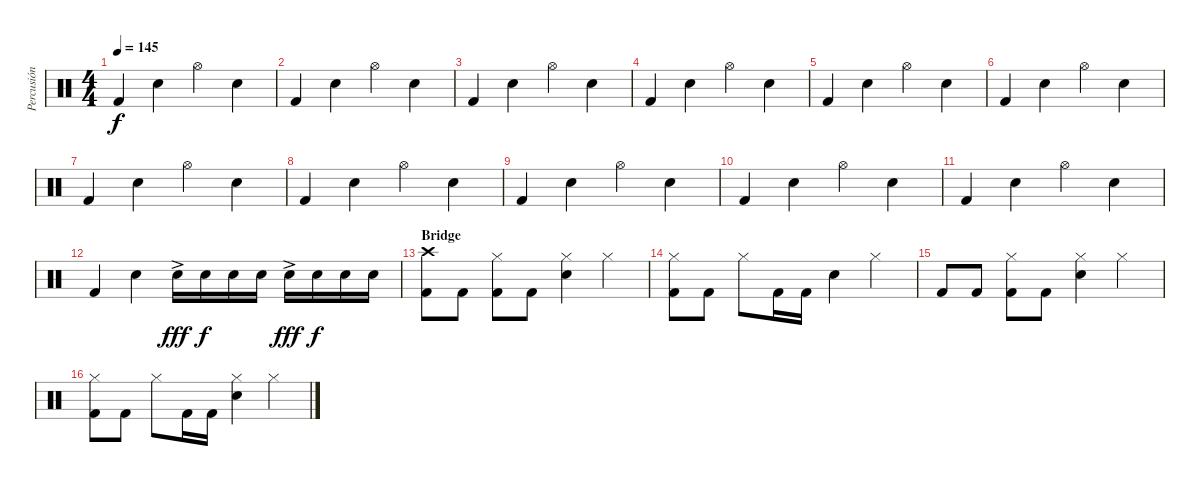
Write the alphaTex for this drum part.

\track ("Percusión" "Percusión") {instrument percussion}
\staff {score}
\articulation defaults
\ts (4 4)
\tempo 145
\clef neutral
\ks c "Kick (hit) 2".4{dy f} "Snare (hit) 2".4 "Hi-Hat (open)".4 "Snare (hit) 2".4
|
"Kick (hit) 2".4 "Snare (hit) 2".4 "Hi-Hat (open)".4 "Snare (hit) 2".4 |
"Kick (hit) 2".4 "Snare (hit) 2".4 "Hi-Hat (open)".4 "Snare (hit) 2".4 |
"Kick (hit) 2".4 "Snare (hit) 2".4 "Hi-Hat (open)".4 "Snare (hit) 2".4 |
"Kick (hit) 2".4 "Snare (hit) 2".4 "Hi-Hat (open)".4 "Snare (hit) 2".4 |
"Kick (hit) 2".4 "Snare (hit) 2".4 "Hi-Hat (open)".4 "Snare (hit) 2".4 |
"Kick (hit) 2".4 "Snare (hit) 2".4 "Hi-Hat (open)".4 "Snare (hit) 2".4 |
"Kick (hit) 2".4 "Snare (hit) 2".4 "Hi-Hat (open)".4 "Snare (hit) 2".4 |
"Kick (hit) 2".4 "Snare (hit) 2".4 "Hi-Hat (open)".4 "Snare (hit) 2".4 |
"Kick (hit) 2".4 "Snare (hit) 2".4 "Hi-Hat (open)".4 "Snare (hit) 2".4 |
"Kick (hit) 2".4 "Snare (hit) 2".4 "Hi-Hat (open)".4 "Snare (hit) 2".4 |
"Kick (hit) 2".4 "Snare (hit) 2".4 "Snare (hit) 2"{ac}.16{dy fff} "Snare (hit) 2".16{dy f} "Snare (hit) 2".16 "Snare (hit) 2".16 "Snare (hit) 2"{ac}.16{dy fff} "Snare (hit) 2".16{dy f} "Snare (hit) 2".16 "Snare (hit) 2".16 |
\section ("" "Bridge")
("Crash high (hit)" "Kick (hit) 2").8 "Kick (hit) 2".8 ("Hi-Hat (closed)" "Kick (hit) 2").8 "Kick (hit) 2".8 ("Hi-Hat (closed)" "Snare (hit) 2").4 "Hi-Hat (closed)".4 |
("Hi-Hat (closed)" "Kick (hit) 2").8 "Kick (hit) 2".8 "Hi-Hat (closed)".8 "Kick (hit) 2".16 "Kick (hit) 2".16 "Snare (hit) 2".4 "Hi-Hat (closed)".4 |
"Kick (hit) 2".8 "Kick (hit) 2".8 ("Hi-Hat (closed)" "Kick (hit) 2").8 "Kick (hit) 2".8 ("Hi-Hat (closed)" "Snare (hit) 2").4 "Hi-Hat (closed)".4 |
("Hi-Hat (closed)" "Kick (hit) 2").8 "Kick (hit) 2".8 "Hi-Hat (closed)".8 "Kick (hit) 2".16 "Kick (hit) 2".16 ("Hi-Hat (closed)" "Snare (hit) 2").4 "Hi-Hat (closed)".4
